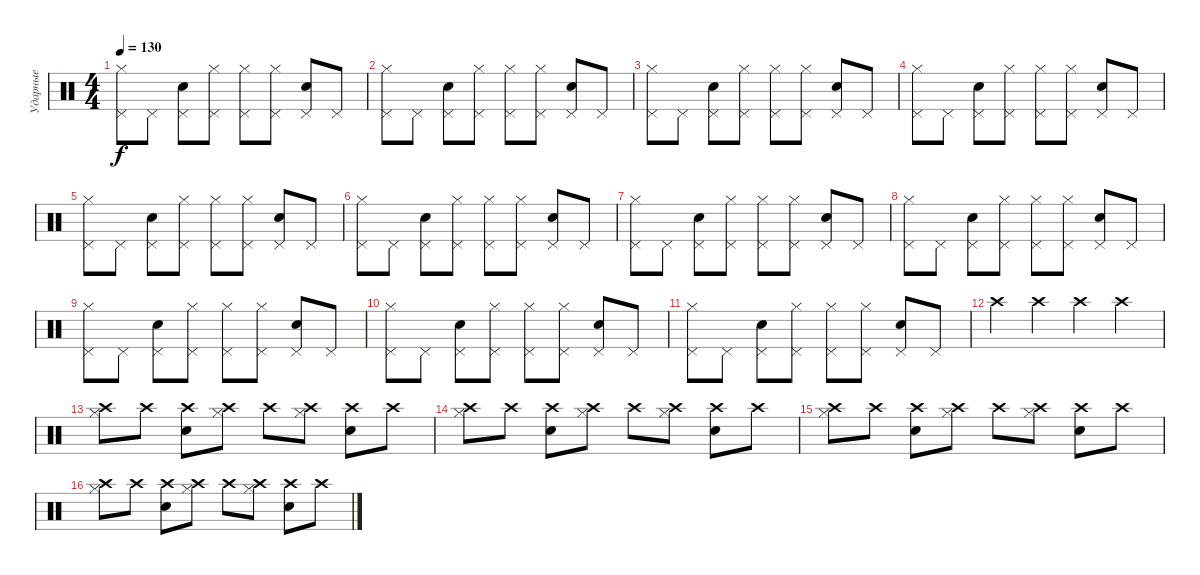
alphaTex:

\track ("Ударные" "Ударные") {instrument percussion}
\staff {score}
\articulation defaults
\ts (4 4)
\tempo 130
\clef neutral
\ks c
("Pedal Hi-Hat (hit)" "Hi-Hat (closed)").8{dy f} "Pedal Hi-Hat (hit)".8 ("Pedal Hi-Hat (hit)" "Snare (hit) 2").8 ("Pedal Hi-Hat (hit)" "Hi-Hat (closed)").8 ("Pedal Hi-Hat (hit)" "Hi-Hat (closed)").8 ("Pedal Hi-Hat (hit)" "Hi-Hat (closed)").8 ("Pedal Hi-Hat (hit)" "Snare (hit) 2").8 "Pedal Hi-Hat (hit)".8 |
("Pedal Hi-Hat (hit)" "Hi-Hat (closed)").8 "Pedal Hi-Hat (hit)".8 ("Pedal Hi-Hat (hit)" "Snare (hit) 2").8 ("Pedal Hi-Hat (hit)" "Hi-Hat (closed)").8 ("Pedal Hi-Hat (hit)" "Hi-Hat (closed)").8 ("Pedal Hi-Hat (hit)" "Hi-Hat (closed)").8 ("Pedal Hi-Hat (hit)" "Snare (hit) 2").8 "Pedal Hi-Hat (hit)".8 |
("Pedal Hi-Hat (hit)" "Hi-Hat (closed)").8 "Pedal Hi-Hat (hit)".8 ("Pedal Hi-Hat (hit)" "Snare (hit) 2").8 ("Pedal Hi-Hat (hit)" "Hi-Hat (closed)").8 ("Pedal Hi-Hat (hit)" "Hi-Hat (closed)").8 ("Pedal Hi-Hat (hit)" "Hi-Hat (closed)").8 ("Pedal Hi-Hat (hit)" "Snare (hit) 2").8 "Pedal Hi-Hat (hit)".8 |
("Pedal Hi-Hat (hit)" "Hi-Hat (closed)").8 "Pedal Hi-Hat (hit)".8 ("Pedal Hi-Hat (hit)" "Snare (hit) 2").8 ("Pedal Hi-Hat (hit)" "Hi-Hat (closed)").8 ("Pedal Hi-Hat (hit)" "Hi-Hat (closed)").8 ("Pedal Hi-Hat (hit)" "Hi-Hat (closed)").8 ("Pedal Hi-Hat (hit)" "Snare (hit) 2").8 "Pedal Hi-Hat (hit)".8 |
("Pedal Hi-Hat (hit)" "Hi-Hat (closed)").8 "Pedal Hi-Hat (hit)".8 ("Pedal Hi-Hat (hit)" "Snare (hit) 2").8 ("Pedal Hi-Hat (hit)" "Hi-Hat (closed)").8 ("Pedal Hi-Hat (hit)" "Hi-Hat (closed)").8 ("Pedal Hi-Hat (hit)" "Hi-Hat (closed)").8 ("Pedal Hi-Hat (hit)" "Snare (hit) 2").8 "Pedal Hi-Hat (hit)".8 |
("Pedal Hi-Hat (hit)" "Hi-Hat (closed)").8 "Pedal Hi-Hat (hit)".8 ("Pedal Hi-Hat (hit)" "Snare (hit) 2").8 ("Pedal Hi-Hat (hit)" "Hi-Hat (closed)").8 ("Pedal Hi-Hat (hit)" "Hi-Hat (closed)").8 ("Pedal Hi-Hat (hit)" "Hi-Hat (closed)").8 ("Pedal Hi-Hat (hit)" "Snare (hit) 2").8 "Pedal Hi-Hat (hit)".8 |
("Pedal Hi-Hat (hit)" "Hi-Hat (closed)").8 "Pedal Hi-Hat (hit)".8 ("Pedal Hi-Hat (hit)" "Snare (hit) 2").8 ("Pedal Hi-Hat (hit)" "Hi-Hat (closed)").8 ("Pedal Hi-Hat (hit)" "Hi-Hat (closed)").8 ("Pedal Hi-Hat (hit)" "Hi-Hat (closed)").8 ("Pedal Hi-Hat (hit)" "Snare (hit) 2").8 "Pedal Hi-Hat (hit)".8 |
("Pedal Hi-Hat (hit)" "Hi-Hat (closed)").8 "Pedal Hi-Hat (hit)".8 ("Pedal Hi-Hat (hit)" "Snare (hit) 2").8 ("Pedal Hi-Hat (hit)" "Hi-Hat (closed)").8 ("Pedal Hi-Hat (hit)" "Hi-Hat (closed)").8 ("Pedal Hi-Hat (hit)" "Hi-Hat (closed)").8 ("Pedal Hi-Hat (hit)" "Snare (hit) 2").8 "Pedal Hi-Hat (hit)".8 |
("Pedal Hi-Hat (hit)" "Hi-Hat (closed)").8 "Pedal Hi-Hat (hit)".8 ("Pedal Hi-Hat (hit)" "Snare (hit) 2").8 ("Pedal Hi-Hat (hit)" "Hi-Hat (closed)").8 ("Pedal Hi-Hat (hit)" "Hi-Hat (closed)").8 ("Pedal Hi-Hat (hit)" "Hi-Hat (closed)").8 ("Pedal Hi-Hat (hit)" "Snare (hit) 2").8 "Pedal Hi-Hat (hit)".8 |
("Pedal Hi-Hat (hit)" "Hi-Hat (closed)").8 "Pedal Hi-Hat (hit)".8 ("Pedal Hi-Hat (hit)" "Snare (hit) 2").8 ("Pedal Hi-Hat (hit)" "Hi-Hat (closed)").8 ("Pedal Hi-Hat (hit)" "Hi-Hat (closed)").8 ("Pedal Hi-Hat (hit)" "Hi-Hat (closed)").8 ("Pedal Hi-Hat (hit)" "Snare (hit) 2").8 "Pedal Hi-Hat (hit)".8 |
("Pedal Hi-Hat (hit)" "Hi-Hat (closed)").8 "Pedal Hi-Hat (hit)".8 ("Pedal Hi-Hat (hit)" "Snare (hit) 2").8 ("Pedal Hi-Hat (hit)" "Hi-Hat (closed)").8 ("Pedal Hi-Hat (hit)" "Hi-Hat (closed)").8 ("Pedal Hi-Hat (hit)" "Hi-Hat (closed)").8 ("Pedal Hi-Hat (hit)" "Snare (hit) 2").8 "Pedal Hi-Hat (hit)".8 |
"Crash high (hit)".4 "Crash high (hit)".4 "Crash high (hit)".4 "Crash high (hit)".4 |
("Hi-Hat (closed)" "Crash high (hit)").8 "Crash high (hit)".8 ("Snare (hit) 2" "Crash high (hit)").8 ("Hi-Hat (closed)" "Crash high (hit)").8 "Crash high (hit)".8 ("Hi-Hat (closed)" "Crash high (hit)").8 ("Snare (hit) 2" "Crash high (hit)").8 "Crash high (hit)".8 |
("Hi-Hat (closed)" "Crash high (hit)").8 "Crash high (hit)".8 ("Snare (hit) 2" "Crash high (hit)").8 ("Hi-Hat (closed)" "Crash high (hit)").8 "Crash high (hit)".8 ("Hi-Hat (closed)" "Crash high (hit)").8 ("Snare (hit) 2" "Crash high (hit)").8 "Crash high (hit)".8 |
("Hi-Hat (closed)" "Crash high (hit)").8 "Crash high (hit)".8 ("Snare (hit) 2" "Crash high (hit)").8 ("Hi-Hat (closed)" "Crash high (hit)").8 "Crash high (hit)".8 ("Hi-Hat (closed)" "Crash high (hit)").8 ("Snare (hit) 2" "Crash high (hit)").8 "Crash high (hit)".8 |
("Hi-Hat (closed)" "Crash high (hit)").8 "Crash high (hit)".8 ("Snare (hit) 2" "Crash high (hit)").8 ("Hi-Hat (closed)" "Crash high (hit)").8 "Crash high (hit)".8 ("Hi-Hat (closed)" "Crash high (hit)").8 ("Snare (hit) 2" "Crash high (hit)").8 "Crash high (hit)".8
